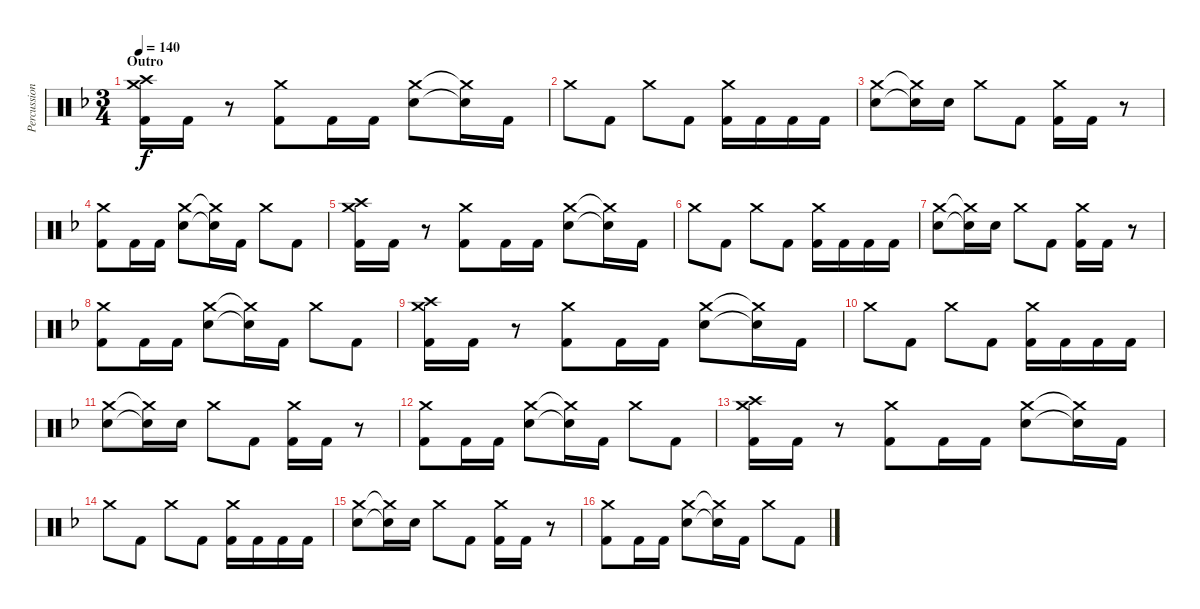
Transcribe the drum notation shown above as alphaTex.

\track ("Percussion" "Percussion") {instrument percussion}
\staff {score}
\articulation defaults
\ts (3 4)
\section ("" "Outro")
\tempo 130
\tempo 140
\clef neutral
\ks f
("Crash medium (hit)" "Crash high (hit)" "Kick (hit) 2").16{dy f} "Kick (hit) 2".16 r.8 ("Crash medium (hit)" "Kick (hit) 2").8 "Kick (hit) 2".16 "Kick (hit) 2".16 ("Crash medium (hit)" "Electric Snare (hit)").8 ("Crash medium (hit)"{t} "Electric Snare (hit)"{t}).16 "Kick (hit) 2".16 |
"Crash medium (hit)".8 "Kick (hit) 2".8 "Crash medium (hit)".8 "Kick (hit) 2".8 ("Crash medium (hit)" "Kick (hit) 2").16 "Kick (hit) 2".16 "Kick (hit) 2".16 "Kick (hit) 2".16 |
("Crash medium (hit)" "Electric Snare (hit)").8 ("Crash medium (hit)"{t} "Electric Snare (hit)"{t}).16 "Electric Snare (hit)".16 "Crash medium (hit)".8 "Kick (hit) 2".8 ("Crash medium (hit)" "Kick (hit) 2").16 "Kick (hit) 2".16 r.8 |
("Crash medium (hit)" "Kick (hit) 2").8 "Kick (hit) 2".16 "Kick (hit) 2".16 ("Crash medium (hit)" "Electric Snare (hit)").8 ("Crash medium (hit)"{t} "Electric Snare (hit)"{t}).16 "Kick (hit) 2".16 "Crash medium (hit)".8 "Kick (hit) 2".8 |
("Crash medium (hit)" "Crash high (hit)" "Kick (hit) 2").16 "Kick (hit) 2".16 r.8 ("Crash medium (hit)" "Kick (hit) 2").8 "Kick (hit) 2".16 "Kick (hit) 2".16 ("Crash medium (hit)" "Electric Snare (hit)").8 ("Crash medium (hit)"{t} "Electric Snare (hit)"{t}).16 "Kick (hit) 2".16 |
"Crash medium (hit)".8 "Kick (hit) 2".8 "Crash medium (hit)".8 "Kick (hit) 2".8 ("Crash medium (hit)" "Kick (hit) 2").16 "Kick (hit) 2".16 "Kick (hit) 2".16 "Kick (hit) 2".16 |
("Crash medium (hit)" "Electric Snare (hit)").8 ("Crash medium (hit)"{t} "Electric Snare (hit)"{t}).16 "Electric Snare (hit)".16 "Crash medium (hit)".8 "Kick (hit) 2".8 ("Crash medium (hit)" "Kick (hit) 2").16 "Kick (hit) 2".16 r.8 |
("Crash medium (hit)" "Kick (hit) 2").8 "Kick (hit) 2".16 "Kick (hit) 2".16 ("Crash medium (hit)" "Electric Snare (hit)").8 ("Crash medium (hit)"{t} "Electric Snare (hit)"{t}).16 "Kick (hit) 2".16 "Crash medium (hit)".8 "Kick (hit) 2".8 |
("Crash medium (hit)" "Crash high (hit)" "Kick (hit) 2").16 "Kick (hit) 2".16 r.8 ("Crash medium (hit)" "Kick (hit) 2").8 "Kick (hit) 2".16 "Kick (hit) 2".16 ("Crash medium (hit)" "Electric Snare (hit)").8 ("Crash medium (hit)"{t} "Electric Snare (hit)"{t}).16 "Kick (hit) 2".16 |
"Crash medium (hit)".8 "Kick (hit) 2".8 "Crash medium (hit)".8 "Kick (hit) 2".8 ("Crash medium (hit)" "Kick (hit) 2").16 "Kick (hit) 2".16 "Kick (hit) 2".16 "Kick (hit) 2".16 |
("Crash medium (hit)" "Electric Snare (hit)").8 ("Crash medium (hit)"{t} "Electric Snare (hit)"{t}).16 "Electric Snare (hit)".16 "Crash medium (hit)".8 "Kick (hit) 2".8 ("Crash medium (hit)" "Kick (hit) 2").16 "Kick (hit) 2".16 r.8 |
("Crash medium (hit)" "Kick (hit) 2").8 "Kick (hit) 2".16 "Kick (hit) 2".16 ("Crash medium (hit)" "Electric Snare (hit)").8 ("Crash medium (hit)"{t} "Electric Snare (hit)"{t}).16 "Kick (hit) 2".16 "Crash medium (hit)".8 "Kick (hit) 2".8 |
("Crash medium (hit)" "Crash high (hit)" "Kick (hit) 2").16 "Kick (hit) 2".16 r.8 ("Crash medium (hit)" "Kick (hit) 2").8 "Kick (hit) 2".16 "Kick (hit) 2".16 ("Crash medium (hit)" "Electric Snare (hit)").8 ("Crash medium (hit)"{t} "Electric Snare (hit)"{t}).16 "Kick (hit) 2".16 |
"Crash medium (hit)".8 "Kick (hit) 2".8 "Crash medium (hit)".8 "Kick (hit) 2".8 ("Crash medium (hit)" "Kick (hit) 2").16 "Kick (hit) 2".16 "Kick (hit) 2".16 "Kick (hit) 2".16 |
("Crash medium (hit)" "Electric Snare (hit)").8 ("Crash medium (hit)"{t} "Electric Snare (hit)"{t}).16 "Electric Snare (hit)".16 "Crash medium (hit)".8 "Kick (hit) 2".8 ("Crash medium (hit)" "Kick (hit) 2").16 "Kick (hit) 2".16 r.8 |
("Crash medium (hit)" "Kick (hit) 2").8 "Kick (hit) 2".16 "Kick (hit) 2".16 ("Crash medium (hit)" "Electric Snare (hit)").8 ("Crash medium (hit)"{t} "Electric Snare (hit)"{t}).16 "Kick (hit) 2".16 "Crash medium (hit)".8 "Kick (hit) 2".8
